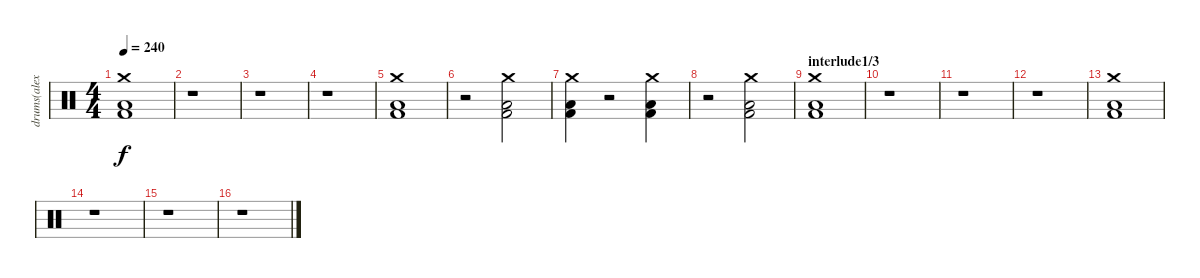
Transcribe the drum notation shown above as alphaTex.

\track ("drums(alex holzshwart)" "drums(alex") {instrument percussion}
\staff {score}
\articulation defaults
\ts (4 4)
\tempo 240
\clef neutral
\ks c
("Crash medium (hit)" "Low Floor Tom (hit)" "Kick (hit) 2").1{dy f} |
r.1 |
r.1 |
r.1 |
("Crash medium (hit)" "Low Floor Tom (hit)" "Kick (hit) 2").1 |
r.2 ("Crash medium (hit)" "Low Floor Tom (hit)" "Kick (hit) 2").2 |
("Crash medium (hit)" "Low Floor Tom (hit)" "Kick (hit) 2").4 r.2 ("Crash medium (hit)" "Low Floor Tom (hit)" "Kick (hit) 2").4 |
r.2 ("Crash medium (hit)" "Low Floor Tom (hit)" "Kick (hit) 2").2 |
\section ("" "interlude1/3")
("Crash medium (hit)" "Low Floor Tom (hit)" "Kick (hit) 2").1 |
r.1 |
r.1 |
r.1 |
("Crash medium (hit)" "Low Floor Tom (hit)" "Kick (hit) 2").1 |
r.1 |
r.1 |
r.1
